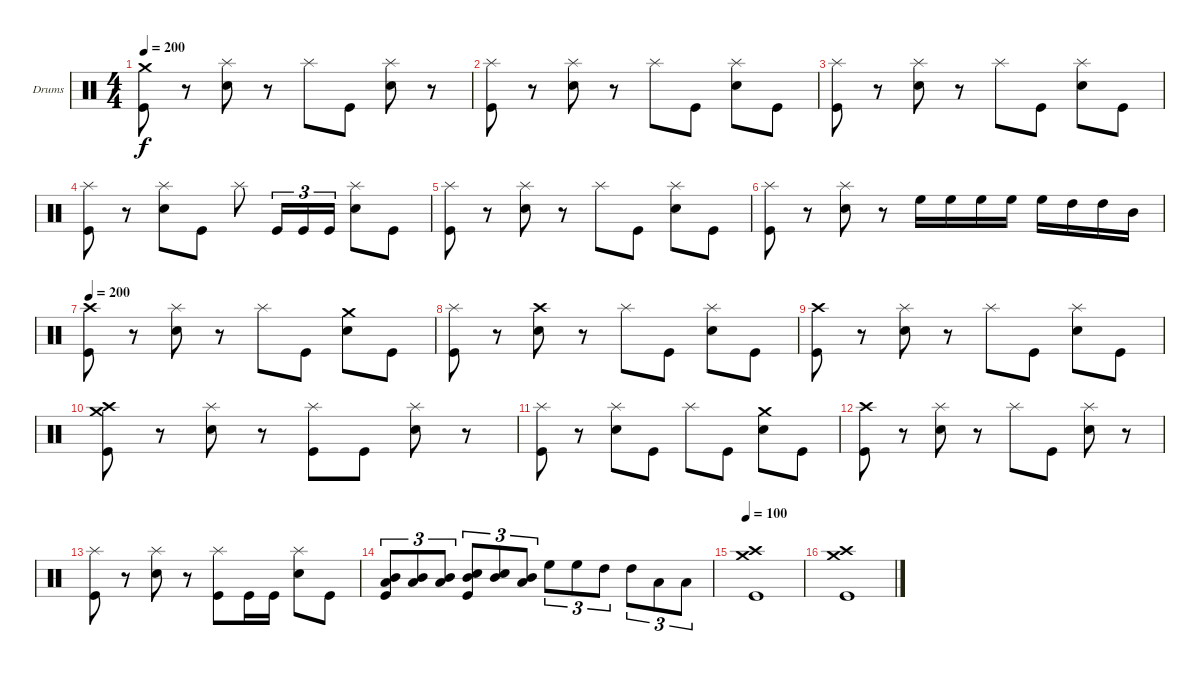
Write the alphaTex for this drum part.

\bracketExtendMode groupsimilarinstruments
\firstSystemTrackNameOrientation horizontal
\otherSystemsTrackNameOrientation horizontal
\track ("Drumkit" "Drums") {instrument percussion}
\staff {score}
\articulation defaults
\ts (4 4)
\tempo 200
\clef neutral
\ks c
("Crash medium (hit)" "Kick (hit)").8{dy f} r.8 ("Splash (hit)" "Snare (hit) 2").8 r.8 "Splash (hit)".8 "Kick (hit)".8 ("Splash (hit)" "Snare (hit) 2").8 r.8 |
("Splash (hit)" "Kick (hit)").8 r.8 ("Splash (hit)" "Snare (hit) 2").8 r.8 "Splash (hit)".8 "Kick (hit)".8 ("Splash (hit)" "Snare (hit) 2").8 "Kick (hit)".8 |
("Splash (hit)" "Kick (hit)").8 r.8 ("Splash (hit)" "Snare (hit) 2").8 r.8 "Splash (hit)".8 "Kick (hit)".8 ("Splash (hit)" "Snare (hit) 2").8 "Kick (hit)".8 |
("Splash (hit)" "Kick (hit)").8 r.8 ("Splash (hit)" "Snare (hit) 2").8 "Kick (hit)".8 "Splash (hit)".8 "Kick (hit)".16{tu (3 2)} "Kick (hit)".16{tu (3 2)} "Kick (hit)".16{tu (3 2)} ("Splash (hit)" "Snare (hit) 2").8 "Kick (hit)".8 |
("Splash (hit)" "Kick (hit)").8 r.8 ("Splash (hit)" "Snare (hit) 2").8 r.8 "Splash (hit)".8 "Kick (hit)".8 ("Splash (hit)" "Snare (hit) 2").8 "Kick (hit)".8 |
("Splash (hit)" "Kick (hit)").8 r.8 ("Splash (hit)" "Snare (hit) 2").8 r.8 "High Floor Tom (hit)".16 "High Floor Tom (hit)".16 "High Floor Tom (hit)".16 "High Floor Tom (hit)".16 "High Floor Tom (hit)".16 "High Tom (hit)".16 "High Tom (hit)".16 "Mid Tom (hit)".16 |
\tempo 200
("Crash high (hit)" "Kick (hit)").8 r.8 ("Splash (hit)" "Snare (hit) 2").8 r.8 "Splash (hit)".8 "Kick (hit)".8 ("Crash medium (hit)" "Snare (hit) 2").8 "Kick (hit)".8 |
("Splash (hit)" "Kick (hit)").8 r.8 ("Crash high (hit)" "Snare (hit) 2").8 r.8 "Splash (hit)".8 "Kick (hit)".8 ("Splash (hit)" "Snare (hit) 2").8 "Kick (hit)".8 |
("Crash high (hit)" "Kick (hit)").8 r.8 ("Splash (hit)" "Snare (hit) 2").8 r.8 "Splash (hit)".8 "Kick (hit)".8 ("Splash (hit)" "Snare (hit) 2").8 "Kick (hit)".8 |
("Crash medium (hit)" "Crash high (hit)" "Kick (hit)").8 r.8 ("Splash (hit)" "Snare (hit) 2").8 r.8 ("Splash (hit)" "Kick (hit)").8 "Kick (hit)".8 ("Splash (hit)" "Snare (hit) 2").8 r.8 |
("Splash (hit)" "Kick (hit)").8 r.8 ("Splash (hit)" "Snare (hit) 2").8 "Kick (hit)".8 "Splash (hit)".8 "Kick (hit)".8 ("Crash medium (hit)" "Snare (hit) 2").8 "Kick (hit)".8 |
("Crash high (hit)" "Kick (hit)").8 r.8 ("Splash (hit)" "Snare (hit) 2").8 r.8 "Splash (hit)".8 "Kick (hit)".8 ("Splash (hit)" "Snare (hit) 2").8 r.8 |
("Splash (hit)" "Kick (hit)").8 r.8 ("Splash (hit)" "Snare (hit) 2").8 r.8 ("Splash (hit)" "Kick (hit)").8 "Kick (hit)".16 "Kick (hit)".16 ("Splash (hit)" "Snare (hit) 2").8 "Kick (hit)".8 |
("Mid Tom (hit)" "Low Tom (hit)" "Kick (hit)").8{tu (3 2)} ("Mid Tom (hit)" "Low Tom (hit)").8{tu (3 2)} ("Mid Tom (hit)" "Low Tom (hit)").8{tu (3 2)} ("Mid Tom (hit)" "Snare (hit) 2" "Kick (hit)").8{tu (3 2)} ("Mid Tom (hit)" "Snare (hit) 2").8{tu (3 2)} ("Mid Tom (hit)" "Low Tom (hit)").8{tu (3 2)} "High Floor Tom (hit)".8{tu (3 2)} "High Floor Tom (hit)".8{tu (3 2)} "High Tom (hit)".8{tu (3 2)} "High Tom (hit)".8{tu (3 2)} "Low Tom (hit)".8{tu (3 2)} "Low Tom (hit)".8{tu (3 2)} |
\tempo 100
("Crash high (hit)" "Crash medium (hit)" "Kick (hit)").1 |
("Crash high (hit)" "Crash medium (hit)" "Kick (hit)").1
